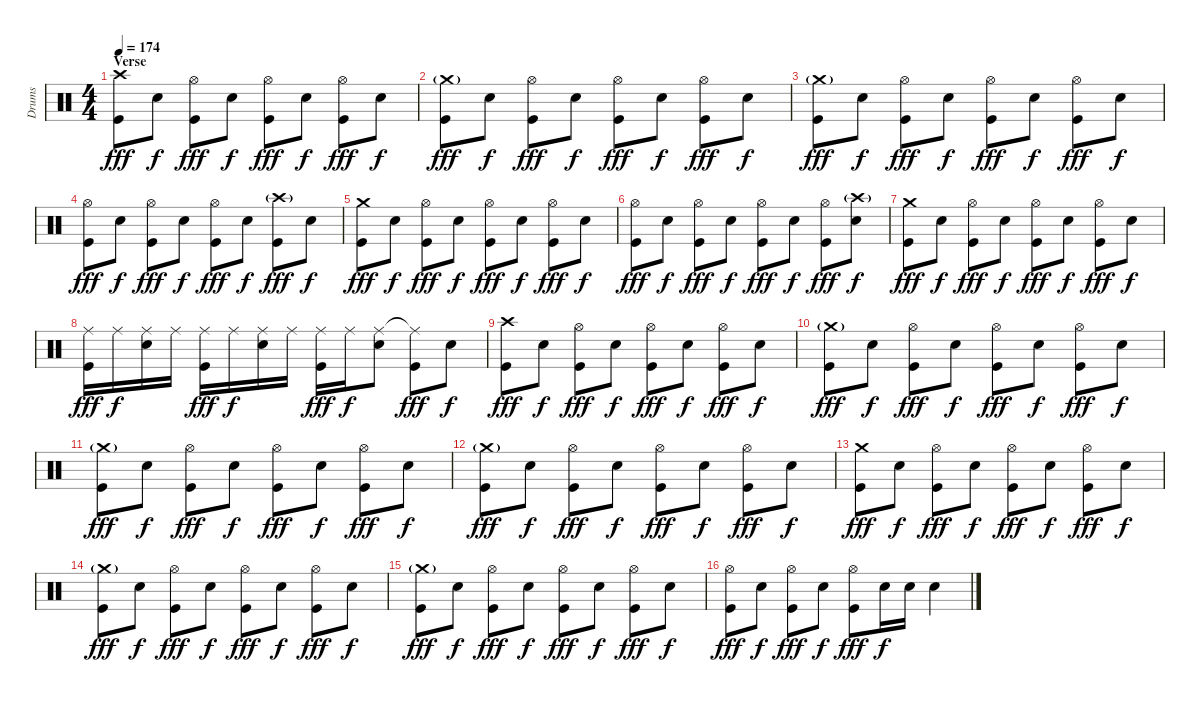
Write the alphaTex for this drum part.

\track ("Drums" "Drums") {instrument percussion}
\staff {score}
\articulation defaults
\ts (4 4)
\section ("" "Verse")
\tempo 174
\clef neutral
\ks c
("Crash high (hit)" "Kick (hit)").8{dy fff} "Snare (hit) 2".8{dy f} ("Hi-Hat (open)" "Kick (hit)").8{dy fff} "Snare (hit) 2".8{dy f} ("Hi-Hat (open)" "Kick (hit)").8{dy fff} "Snare (hit) 2".8{dy f} ("Hi-Hat (open)" "Kick (hit)").8{dy fff} "Snare (hit) 2".8{dy f} |
("Crash medium (hit)"{g} "Kick (hit)").8{dy fff} "Snare (hit) 2".8{dy f} ("Hi-Hat (open)" "Kick (hit)").8{dy fff} "Snare (hit) 2".8{dy f} ("Hi-Hat (open)" "Kick (hit)").8{dy fff} "Snare (hit) 2".8{dy f} ("Hi-Hat (open)" "Kick (hit)").8{dy fff} "Snare (hit) 2".8{dy f} |
("Crash medium (hit)"{g} "Kick (hit)").8{dy fff} "Snare (hit) 2".8{dy f} ("Hi-Hat (open)" "Kick (hit)").8{dy fff} "Snare (hit) 2".8{dy f} ("Hi-Hat (open)" "Kick (hit)").8{dy fff} "Snare (hit) 2".8{dy f} ("Hi-Hat (open)" "Kick (hit)").8{dy fff} "Snare (hit) 2".8{dy f} |
("Hi-Hat (open)" "Kick (hit)").8{dy fff} "Snare (hit) 2".8{dy f} ("Hi-Hat (open)" "Kick (hit)").8{dy fff} "Snare (hit) 2".8{dy f} ("Hi-Hat (open)" "Kick (hit)").8{dy fff} "Snare (hit) 2".8{dy f} ("Crash high (hit)"{g} "Kick (hit)").8{dy fff} "Snare (hit) 2".8{dy f} |
("Crash medium (hit)" "Kick (hit)").8{dy fff} "Snare (hit) 2".8{dy f} ("Hi-Hat (open)" "Kick (hit)").8{dy fff} "Snare (hit) 2".8{dy f} ("Hi-Hat (open)" "Kick (hit)").8{dy fff} "Snare (hit) 2".8{dy f} ("Hi-Hat (open)" "Kick (hit)").8{dy fff} "Snare (hit) 2".8{dy f} |
("Hi-Hat (open)" "Kick (hit)").8{dy fff} "Snare (hit) 2".8{dy f} ("Hi-Hat (open)" "Kick (hit)").8{dy fff} "Snare (hit) 2".8{dy f} ("Hi-Hat (open)" "Kick (hit)").8{dy fff} "Snare (hit) 2".8{dy f} ("Hi-Hat (open)" "Kick (hit)").8{dy fff} ("Crash high (hit)"{g} "Snare (hit) 2").8{dy f} |
("Crash medium (hit)" "Kick (hit)").8{dy fff} "Snare (hit) 2".8{dy f} ("Hi-Hat (open)" "Kick (hit)").8{dy fff} "Snare (hit) 2".8{dy f} ("Hi-Hat (open)" "Kick (hit)").8{dy fff} "Snare (hit) 2".8{dy f} ("Hi-Hat (open)" "Kick (hit)").8{dy fff} "Snare (hit) 2".8{dy f} |
("Ride (middle)" "Kick (hit)").16{dy fff} "Ride (middle)".16{dy f} ("Ride (middle)" "Snare (hit) 2").16 "Ride (middle)".16 ("Ride (middle)" "Kick (hit)").16{dy fff} "Ride (middle)".16{dy f} ("Ride (middle)" "Snare (hit) 2").16 "Ride (middle)".16 ("Ride (middle)" "Kick (hit)").16{dy fff} "Ride (middle)".16{dy f} ("Ride (middle)" "Snare (hit) 2").8 ("Ride (middle)"{t} "Kick (hit)").8{dy fff} "Snare (hit) 2".8{dy f} |
("Crash high (hit)" "Kick (hit)").8{dy fff} "Snare (hit) 2".8{dy f} ("Hi-Hat (open)" "Kick (hit)").8{dy fff} "Snare (hit) 2".8{dy f} ("Hi-Hat (open)" "Kick (hit)").8{dy fff} "Snare (hit) 2".8{dy f} ("Hi-Hat (open)" "Kick (hit)").8{dy fff} "Snare (hit) 2".8{dy f} |
("Crash medium (hit)"{g} "Kick (hit)").8{dy fff} "Snare (hit) 2".8{dy f} ("Hi-Hat (open)" "Kick (hit)").8{dy fff} "Snare (hit) 2".8{dy f} ("Hi-Hat (open)" "Kick (hit)").8{dy fff} "Snare (hit) 2".8{dy f} ("Hi-Hat (open)" "Kick (hit)").8{dy fff} "Snare (hit) 2".8{dy f} |
("Crash medium (hit)"{g} "Kick (hit)").8{dy fff} "Snare (hit) 2".8{dy f} ("Hi-Hat (open)" "Kick (hit)").8{dy fff} "Snare (hit) 2".8{dy f} ("Hi-Hat (open)" "Kick (hit)").8{dy fff} "Snare (hit) 2".8{dy f} ("Hi-Hat (open)" "Kick (hit)").8{dy fff} "Snare (hit) 2".8{dy f} |
("Crash medium (hit)"{g} "Kick (hit)").8{dy fff} "Snare (hit) 2".8{dy f} ("Hi-Hat (open)" "Kick (hit)").8{dy fff} "Snare (hit) 2".8{dy f} ("Hi-Hat (open)" "Kick (hit)").8{dy fff} "Snare (hit) 2".8{dy f} ("Hi-Hat (open)" "Kick (hit)").8{dy fff} "Snare (hit) 2".8{dy f} |
("Crash medium (hit)" "Kick (hit)").8{dy fff} "Snare (hit) 2".8{dy f} ("Hi-Hat (open)" "Kick (hit)").8{dy fff} "Snare (hit) 2".8{dy f} ("Hi-Hat (open)" "Kick (hit)").8{dy fff} "Snare (hit) 2".8{dy f} ("Hi-Hat (open)" "Kick (hit)").8{dy fff} "Snare (hit) 2".8{dy f} |
("Crash medium (hit)"{g} "Kick (hit)").8{dy fff} "Snare (hit) 2".8{dy f} ("Hi-Hat (open)" "Kick (hit)").8{dy fff} "Snare (hit) 2".8{dy f} ("Hi-Hat (open)" "Kick (hit)").8{dy fff} "Snare (hit) 2".8{dy f} ("Hi-Hat (open)" "Kick (hit)").8{dy fff} "Snare (hit) 2".8{dy f} |
("Crash medium (hit)"{g} "Kick (hit)").8{dy fff} "Snare (hit) 2".8{dy f} ("Hi-Hat (open)" "Kick (hit)").8{dy fff} "Snare (hit) 2".8{dy f} ("Hi-Hat (open)" "Kick (hit)").8{dy fff} "Snare (hit) 2".8{dy f} ("Hi-Hat (open)" "Kick (hit)").8{dy fff} "Snare (hit) 2".8{dy f} |
("Hi-Hat (open)" "Kick (hit)").8{dy fff} "Snare (hit) 2".8{dy f} ("Hi-Hat (open)" "Kick (hit)").8{dy fff} "Snare (hit) 2".8{dy f} ("Hi-Hat (open)" "Kick (hit)").8{dy fff} "Snare (hit) 2".16{dy f} "Snare (hit) 2".16 "Snare (hit) 2".4
